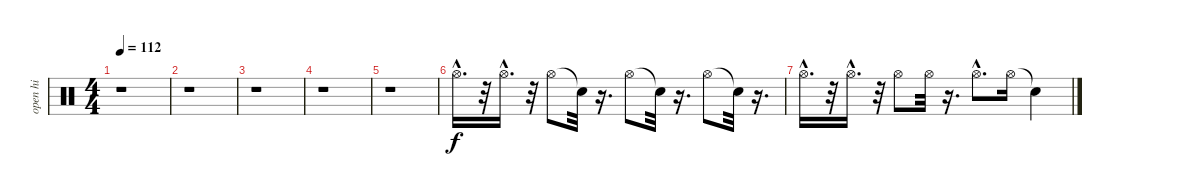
\track ("open hi" "open hi") {instrument percussion}
\staff {score}
\articulation defaults
\ts (4 4)
\tempo 112
\clef neutral
\ks c
r.1{dy f} |
r.1 |
r.1 |
r.1 |
r.1 |
"Hi-Hat (open)"{hac}.16{d} r.32 "Hi-Hat (open)"{hac}.16{d} r.32 "Hi-Hat (open)".8 "Snare (hit)"{t}.32 r.16{d} "Hi-Hat (open)".8 "Snare (hit)"{t}.32 r.16{d} "Hi-Hat (open)".8 "Snare (hit)"{t}.32 r.16{d} |
"Hi-Hat (open)"{hac}.16{d} r.32 "Hi-Hat (open)"{hac}.16{d} r.32 "Hi-Hat (open)".8 "Hi-Hat (open)".32 r.16{d} "Hi-Hat (open)"{hac}.8{d} "Hi-Hat (open)".16 "Snare (hit)"{t}.4
